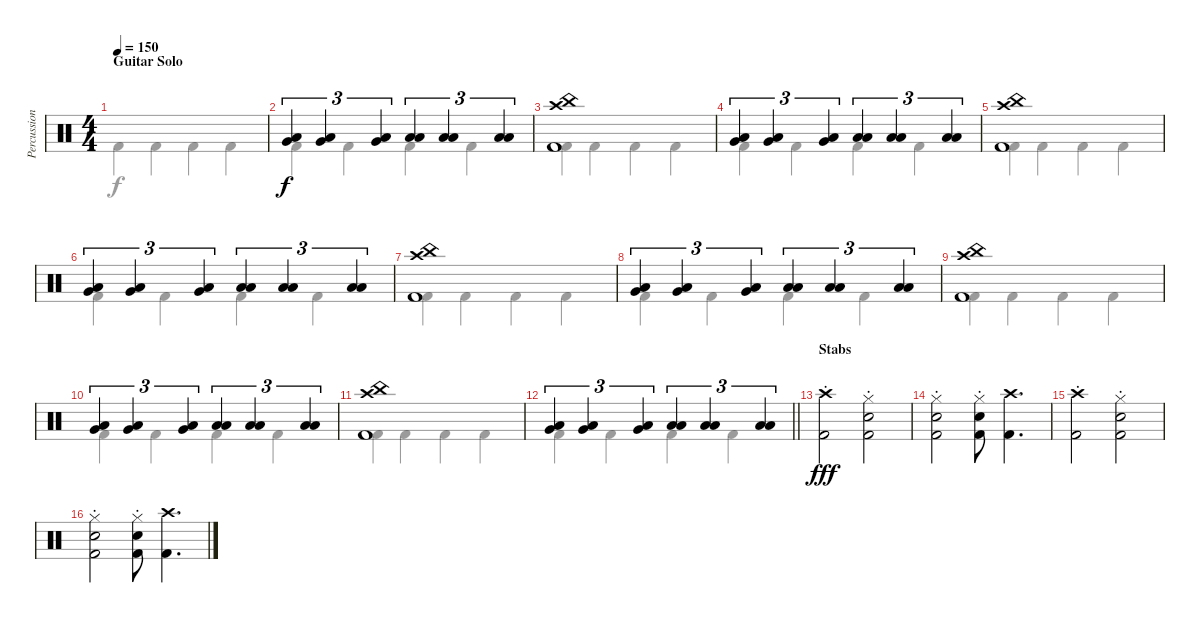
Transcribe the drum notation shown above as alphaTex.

\track ("Percussion" "Percussion") {instrument percussion}
\staff {score}
\articulation defaults
\voice
\ts (4 4)
\section ("" "Guitar Solo")
\tempo 150
\clef neutral
\ks c
|
("Very Low Tom (hit)" "Low Floor Tom (hit)").4{tu (3 2)} ("Very Low Tom (hit)" "Low Floor Tom (hit)").4{tu (3 2)} ("Very Low Tom (hit)" "Low Floor Tom (hit)").4{tu (3 2)} ("Low Floor Tom (hit)" "Low Tom (hit)").4{tu (3 2)} ("Low Floor Tom (hit)" "Low Tom (hit)").4{tu (3 2)} ("Low Floor Tom (hit)" "Low Tom (hit)").4{tu (3 2)} |
("China (hit)" "Kick (hit) 2" "Crash high (hit)").1 |
("Very Low Tom (hit)" "Low Floor Tom (hit)").4{tu (3 2)} ("Very Low Tom (hit)" "Low Floor Tom (hit)").4{tu (3 2)} ("Very Low Tom (hit)" "Low Floor Tom (hit)").4{tu (3 2)} ("Low Floor Tom (hit)" "Low Tom (hit)").4{tu (3 2)} ("Low Floor Tom (hit)" "Low Tom (hit)").4{tu (3 2)} ("Low Floor Tom (hit)" "Low Tom (hit)").4{tu (3 2)} |
("China (hit)" "Kick (hit) 2" "Crash high (hit)").1 |
("Very Low Tom (hit)" "Low Floor Tom (hit)").4{tu (3 2)} ("Very Low Tom (hit)" "Low Floor Tom (hit)").4{tu (3 2)} ("Very Low Tom (hit)" "Low Floor Tom (hit)").4{tu (3 2)} ("Low Floor Tom (hit)" "Low Tom (hit)").4{tu (3 2)} ("Low Floor Tom (hit)" "Low Tom (hit)").4{tu (3 2)} ("Low Floor Tom (hit)" "Low Tom (hit)").4{tu (3 2)} |
("China (hit)" "Kick (hit) 2" "Crash high (hit)").1 |
("Very Low Tom (hit)" "Low Floor Tom (hit)").4{tu (3 2)} ("Very Low Tom (hit)" "Low Floor Tom (hit)").4{tu (3 2)} ("Very Low Tom (hit)" "Low Floor Tom (hit)").4{tu (3 2)} ("Low Floor Tom (hit)" "Low Tom (hit)").4{tu (3 2)} ("Low Floor Tom (hit)" "Low Tom (hit)").4{tu (3 2)} ("Low Floor Tom (hit)" "Low Tom (hit)").4{tu (3 2)} |
("China (hit)" "Kick (hit) 2" "Crash high (hit)").1 |
("Very Low Tom (hit)" "Low Floor Tom (hit)").4{tu (3 2)} ("Very Low Tom (hit)" "Low Floor Tom (hit)").4{tu (3 2)} ("Very Low Tom (hit)" "Low Floor Tom (hit)").4{tu (3 2)} ("Low Floor Tom (hit)" "Low Tom (hit)").4{tu (3 2)} ("Low Floor Tom (hit)" "Low Tom (hit)").4{tu (3 2)} ("Low Floor Tom (hit)" "Low Tom (hit)").4{tu (3 2)} |
("China (hit)" "Kick (hit) 2" "Crash high (hit)").1 |
\barLineRight lightlight
("Very Low Tom (hit)" "Low Floor Tom (hit)").4{tu (3 2)} ("Very Low Tom (hit)" "Low Floor Tom (hit)").4{tu (3 2)} ("Very Low Tom (hit)" "Low Floor Tom (hit)").4{tu (3 2)} ("Low Floor Tom (hit)" "Low Tom (hit)").4{tu (3 2)} ("Low Floor Tom (hit)" "Low Tom (hit)").4{tu (3 2)} ("Low Floor Tom (hit)" "Low Tom (hit)").4{tu (3 2)} |
\section ("" "Stabs")
("Crash high (hit)" "Kick (hit) 2"{st}).2{dy fff} ("Snare (hit) 2" "Hi-Hat (closed)" "Kick (hit) 2"{st}).2 |
("Snare (hit) 2" "Hi-Hat (closed)" "Kick (hit) 2"{st}).2 ("Snare (hit) 2" "Hi-Hat (closed)" "Kick (hit) 2"{st}).8 ("Crash high (hit)" "Kick (hit) 2").4{d} |
("Crash high (hit)" "Kick (hit) 2"{st}).2 ("Snare (hit) 2" "Hi-Hat (closed)" "Kick (hit) 2"{st}).2 |
("Snare (hit) 2" "Hi-Hat (closed)" "Kick (hit) 2"{st}).2 ("Snare (hit) 2" "Hi-Hat (closed)" "Kick (hit) 2"{st}).8 ("Crash high (hit)" "Kick (hit) 2").4{d}
\voice
\clef neutral
\ottava regular
\simile none
\ks c "Kick (hit) 2".4{dy f} "Kick (hit) 2".4 "Kick (hit) 2".4 "Kick (hit) 2".4
|
"Kick (hit) 2".4 "Kick (hit) 2".4 "Kick (hit) 2".4 "Kick (hit) 2".4 |
"Kick (hit) 2".4 "Kick (hit) 2".4 "Kick (hit) 2".4 "Kick (hit) 2".4 |
"Kick (hit) 2".4 "Kick (hit) 2".4 "Kick (hit) 2".4 "Kick (hit) 2".4 |
"Kick (hit) 2".4 "Kick (hit) 2".4 "Kick (hit) 2".4 "Kick (hit) 2".4 |
"Kick (hit) 2".4 "Kick (hit) 2".4 "Kick (hit) 2".4 "Kick (hit) 2".4 |
"Kick (hit) 2".4 "Kick (hit) 2".4 "Kick (hit) 2".4 "Kick (hit) 2".4 |
"Kick (hit) 2".4 "Kick (hit) 2".4 "Kick (hit) 2".4 "Kick (hit) 2".4 |
"Kick (hit) 2".4 "Kick (hit) 2".4 "Kick (hit) 2".4 "Kick (hit) 2".4 |
"Kick (hit) 2".4 "Kick (hit) 2".4 "Kick (hit) 2".4 "Kick (hit) 2".4 |
"Kick (hit) 2".4 "Kick (hit) 2".4 "Kick (hit) 2".4 "Kick (hit) 2".4 |
\barLineRight lightlight "Kick (hit) 2".4 "Kick (hit) 2".4 "Kick (hit) 2".4 "Kick (hit) 2".4
|
|
|
|
